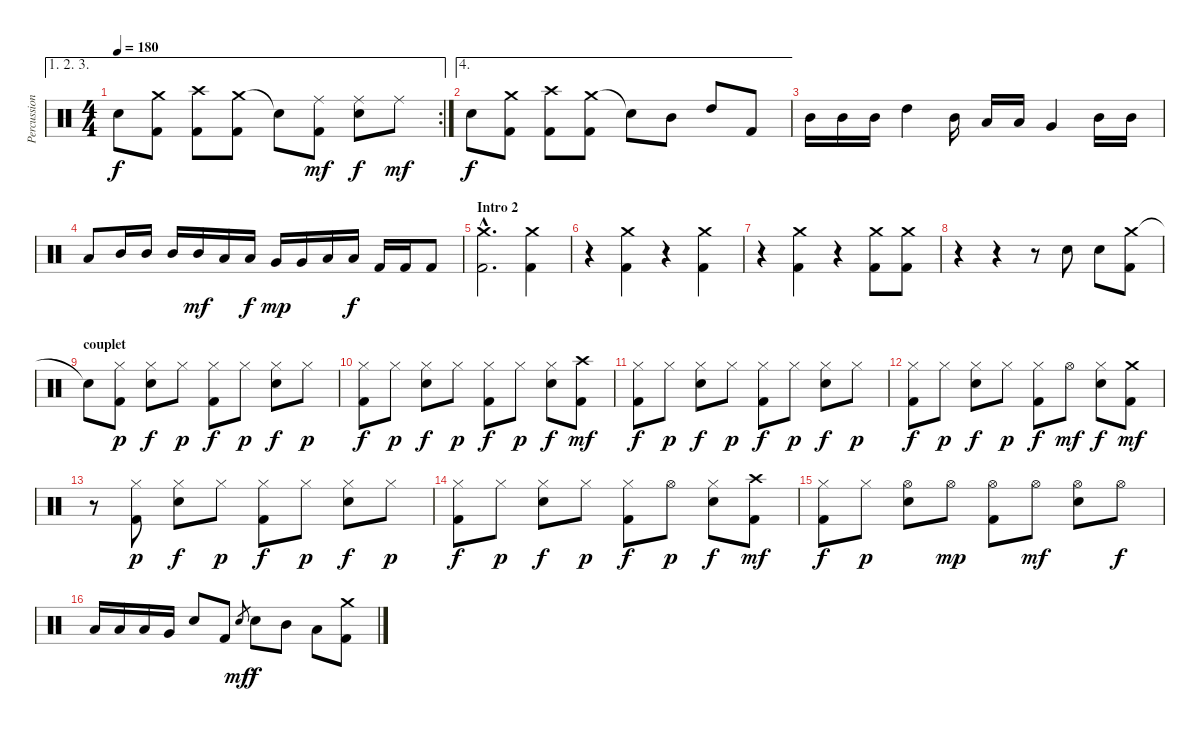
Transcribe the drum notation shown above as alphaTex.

\track ("Percussions" "Percussion") {instrument percussion}
\staff {score}
\articulation defaults
\ae (1 2 3)
\rc 2
\ts (4 4)
\tempo 180
\clef neutral
\ks c "Electric Snare (hit)".8{dy f}
("Crash medium (hit)" "Kick (hit) 2").8 ("Crash high (hit)" "Kick (hit) 2").8 ("Crash medium (hit)" "Kick (hit) 2").8 "Snare (hit)"{t}.8 ("Ride (middle)" "Kick (hit) 2").8{dy mf} ("Ride (middle)" "Electric Snare (hit)").8{dy f} "Ride (middle)".8{dy mf} |
\ae 4 "Electric Snare (hit)".8{dy f}
("Crash medium (hit)" "Kick (hit) 2").8 ("Crash high (hit)" "Kick (hit) 2").8 ("Crash medium (hit)" "Kick (hit) 2").8 "Snare (hit)"{t}.8 "Mid Tom (hit)".8 "High Tom (hit)".8 "Kick (hit) 2".8 |
"Mid Tom (hit)".16 "Mid Tom (hit)".16 "Mid Tom (hit)".16 "High Tom (hit)".4 "Mid Tom (hit)".16 "Low Tom (hit)".16 "Low Tom (hit)".16 "Very Low Tom (hit)".4 "Mid Tom (hit)".16 "Mid Tom (hit)".16 |
"Low Tom (hit)".8 "Mid Tom (hit)".16 "Mid Tom (hit)".16 "Mid Tom (hit)".16 "Mid Tom (hit)".16{dy mf} "Low Tom (hit)".16 "Low Tom (hit)".16{dy f} "Very Low Tom (hit)".16{dy mp} "Very Low Tom (hit)".16 "Low Floor Tom (hit)".16 "Low Floor Tom (hit)".16{dy f} "Kick (hit) 2".16 "Kick (hit) 2".16 "Kick (hit) 2".8 |
\section ("" "Intro 2")
("Crash medium (hit)"{hac} "Kick (hit) 2"{hac}).2{d} ("Crash medium (hit)" "Kick (hit) 2").4 |
r.4 ("Crash medium (hit)" "Kick (hit) 2").4 r.4 ("Crash medium (hit)" "Kick (hit) 2").4 |
r.4 ("Crash medium (hit)" "Kick (hit) 2").4 r.4 ("Crash medium (hit)" "Kick (hit) 2").8 ("Crash medium (hit)" "Kick (hit) 2").8 |
r.4 r.4 r.8 "Electric Snare (hit)".8 "Electric Snare (hit)".8 ("Crash medium (hit)" "Kick (hit) 2").8 |
\section ("" "couplet")
"Snare (hit)"{t}.8 ("Hi-Hat (closed)" "Kick (hit) 2").8{dy p} ("Hi-Hat (closed)" "Electric Snare (hit)").8{dy f} "Hi-Hat (closed)".8{dy p} ("Hi-Hat (closed)" "Kick (hit) 2").8{dy f} "Hi-Hat (closed)".8{dy p} ("Hi-Hat (closed)" "Electric Snare (hit)").8{dy f} "Hi-Hat (closed)".8{dy p} |
("Hi-Hat (closed)" "Kick (hit) 2").8{dy f} "Hi-Hat (closed)".8{dy p} ("Hi-Hat (closed)" "Electric Snare (hit)").8{dy f} "Hi-Hat (closed)".8{dy p} ("Hi-Hat (closed)" "Kick (hit) 2").8{dy f} "Hi-Hat (closed)".8{dy p} ("Hi-Hat (closed)" "Electric Snare (hit)").8{dy f} ("Crash high (hit)" "Kick (hit) 2").8{dy mf} |
("Hi-Hat (closed)" "Kick (hit) 2").8{dy f} "Hi-Hat (closed)".8{dy p} ("Hi-Hat (closed)" "Electric Snare (hit)").8{dy f} "Hi-Hat (closed)".8{dy p} ("Hi-Hat (closed)" "Kick (hit) 2").8{dy f} "Hi-Hat (closed)".8{dy p} ("Hi-Hat (closed)" "Electric Snare (hit)").8{dy f} "Hi-Hat (closed)".8{dy p} |
("Hi-Hat (closed)" "Kick (hit) 2").8{dy f} "Hi-Hat (closed)".8{dy p} ("Hi-Hat (closed)" "Electric Snare (hit)").8{dy f} "Hi-Hat (closed)".8{dy p} ("Hi-Hat (closed)" "Kick (hit) 2").8{dy f} "Hi-Hat (open)".8{dy mf} ("Hi-Hat (closed)" "Electric Snare (hit)").8{dy f} ("Crash medium (hit)" "Kick (hit) 2").8{dy mf} |
r.8 ("Hi-Hat (closed)" "Kick (hit) 2").8{dy p} ("Hi-Hat (closed)" "Electric Snare (hit)").8{dy f} "Hi-Hat (closed)".8{dy p} ("Hi-Hat (closed)" "Kick (hit) 2").8{dy f} "Hi-Hat (closed)".8{dy p} ("Hi-Hat (closed)" "Electric Snare (hit)").8{dy f} "Hi-Hat (closed)".8{dy p} |
("Hi-Hat (closed)" "Kick (hit) 2").8{dy f} "Hi-Hat (closed)".8{dy p} ("Hi-Hat (closed)" "Electric Snare (hit)").8{dy f} "Hi-Hat (closed)".8{dy p} ("Hi-Hat (closed)" "Kick (hit) 2").8{dy f} "Hi-Hat (open)".8{dy p} ("Hi-Hat (closed)" "Electric Snare (hit)").8{dy f} ("Crash high (hit)" "Kick (hit) 2").8{dy mf} |
("Hi-Hat (closed)" "Kick (hit) 2").8{dy f} "Hi-Hat (closed)".8{dy p} ("Hi-Hat (open)" "Electric Snare (hit)").8 "Hi-Hat (open)".8{dy mp} ("Hi-Hat (open)" "Kick (hit) 2").8 "Hi-Hat (open)".8{dy mf} ("Hi-Hat (open)" "Electric Snare (hit)").8 "Hi-Hat (open)".8{dy f} |
"Low Tom (hit)".16 "Low Tom (hit)".16 "Low Tom (hit)".16 "Very Low Tom (hit)".16 "Electric Snare (hit)".8 "Kick (hit) 2".8 "Electric Snare (hit)".8{gr dy mf} "Electric Snare (hit)".8{dy f} "Mid Tom (hit)".8 "Low Tom (hit)".8 ("Crash medium (hit)" "Kick (hit) 2").8
